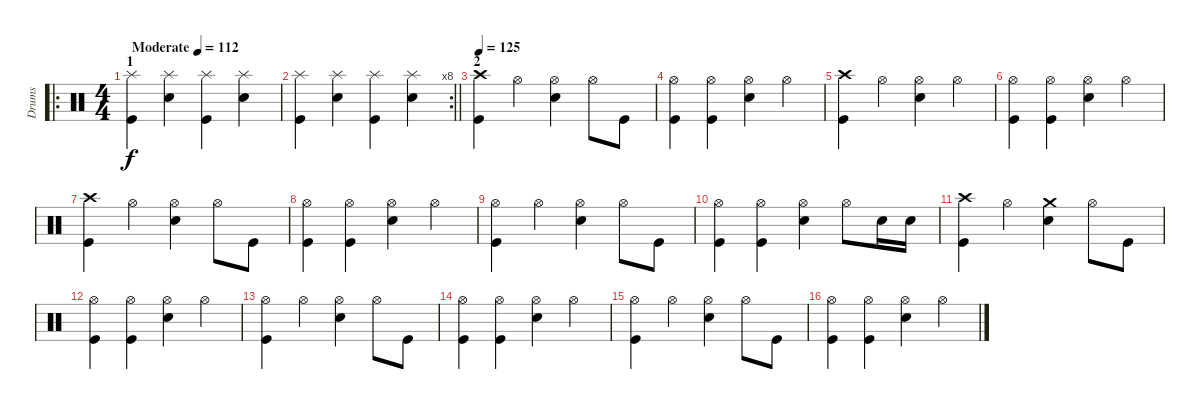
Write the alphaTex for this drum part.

\track ("Drums" "Drums") {instrument percussion}
\staff {score}
\articulation defaults
\ro
\ts (4 4)
\section ("" "1")
\tempo (112 "Moderate")
\clef neutral
\ks c
("Splash (hit)" "Kick (hit)").4{dy f} ("Splash (hit)" "Electric Snare (hit)").4 ("Splash (hit)" "Kick (hit)").4 ("Splash (hit)" "Electric Snare (hit)").4 |
\rc 8
\barLineRight lightlight
("Splash (hit)" "Kick (hit)").4 ("Splash (hit)" "Electric Snare (hit)").4 ("Splash (hit)" "Kick (hit)").4 ("Splash (hit)" "Electric Snare (hit)").4 |
\section ("" "2")
\tempo 125
("Crash high (hit)" "Kick (hit)").4 "Hi-Hat (open)".4 ("Hi-Hat (open)" "Electric Snare (hit)").4 "Hi-Hat (open)".8 "Kick (hit)".8 |
("Hi-Hat (open)" "Kick (hit)").4 ("Hi-Hat (open)" "Kick (hit)").4 ("Hi-Hat (open)" "Electric Snare (hit)").4 "Hi-Hat (open)".4 |
("Crash high (hit)" "Kick (hit)").4 "Hi-Hat (open)".4 ("Hi-Hat (open)" "Electric Snare (hit)").4 "Hi-Hat (open)".4 |
("Hi-Hat (open)" "Kick (hit)").4 ("Hi-Hat (open)" "Kick (hit)").4 ("Hi-Hat (open)" "Electric Snare (hit)").4 "Hi-Hat (open)".4 |
("Crash high (hit)" "Kick (hit)").4 "Hi-Hat (open)".4 ("Hi-Hat (open)" "Electric Snare (hit)").4 "Hi-Hat (open)".8 "Kick (hit)".8 |
("Hi-Hat (open)" "Kick (hit)").4 ("Hi-Hat (open)" "Kick (hit)").4 ("Hi-Hat (open)" "Electric Snare (hit)").4 "Hi-Hat (open)".4 |
("Hi-Hat (open)" "Kick (hit)").4 "Hi-Hat (open)".4 ("Hi-Hat (open)" "Electric Snare (hit)").4 "Hi-Hat (open)".8 "Kick (hit)".8 |
("Hi-Hat (open)" "Kick (hit)").4 ("Hi-Hat (open)" "Kick (hit)").4 ("Hi-Hat (open)" "Electric Snare (hit)").4 "Hi-Hat (open)".8 "Electric Snare (hit)".16 "Electric Snare (hit)".16 |
("Crash high (hit)" "Kick (hit)").4 "Hi-Hat (open)".4 ("Crash medium (hit)" "Electric Snare (hit)").4 "Hi-Hat (open)".8 "Kick (hit)".8 |
("Hi-Hat (open)" "Kick (hit)").4 ("Hi-Hat (open)" "Kick (hit)").4 ("Hi-Hat (open)" "Electric Snare (hit)").4 "Hi-Hat (open)".4 |
("Hi-Hat (open)" "Kick (hit)").4 "Hi-Hat (open)".4 ("Hi-Hat (open)" "Electric Snare (hit)").4 "Hi-Hat (open)".8 "Kick (hit)".8 |
("Hi-Hat (open)" "Kick (hit)").4 ("Hi-Hat (open)" "Kick (hit)").4 ("Hi-Hat (open)" "Electric Snare (hit)").4 "Hi-Hat (open)".4 |
("Hi-Hat (open)" "Kick (hit)").4 "Hi-Hat (open)".4 ("Hi-Hat (open)" "Electric Snare (hit)").4 "Hi-Hat (open)".8 "Kick (hit)".8 |
("Hi-Hat (open)" "Kick (hit)").4 ("Hi-Hat (open)" "Kick (hit)").4 ("Hi-Hat (open)" "Electric Snare (hit)").4 "Hi-Hat (open)".4
